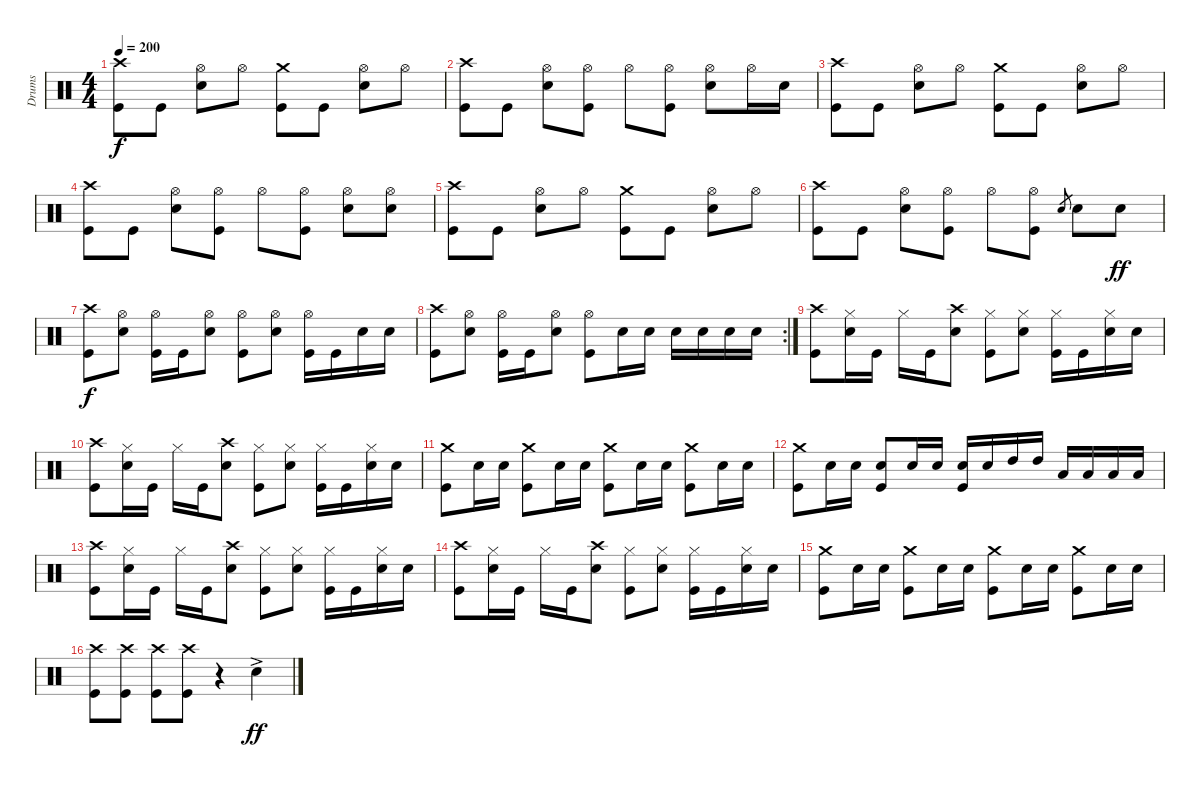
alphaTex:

\track ("Drums" "Drums") {instrument percussion}
\staff {score}
\articulation defaults
\ts (4 4)
\tempo 200
\clef neutral
\ks c
("Crash high (hit)" "Kick (hit)").8{dy f} "Kick (hit)".8 ("Hi-Hat (open)" "Snare (hit) 2").8 "Hi-Hat (open)".8 ("Crash medium (hit)" "Kick (hit)").8 "Kick (hit)".8 ("Hi-Hat (open)" "Snare (hit) 2").8 "Hi-Hat (open)".8 |
("Crash high (hit)" "Kick (hit)").8 "Kick (hit)".8 ("Hi-Hat (open)" "Snare (hit) 2").8 ("Hi-Hat (open)" "Kick (hit)").8 "Hi-Hat (open)".8 ("Hi-Hat (open)" "Kick (hit)").8 ("Hi-Hat (open)" "Snare (hit) 2").8 "Hi-Hat (open)".16 "Snare (hit) 2".16 |
("Crash high (hit)" "Kick (hit)").8 "Kick (hit)".8 ("Hi-Hat (open)" "Snare (hit) 2").8 "Hi-Hat (open)".8 ("Crash medium (hit)" "Kick (hit)").8 "Kick (hit)".8 ("Hi-Hat (open)" "Snare (hit) 2").8 "Hi-Hat (open)".8 |
("Crash high (hit)" "Kick (hit)").8 "Kick (hit)".8 ("Hi-Hat (open)" "Snare (hit) 2").8 ("Hi-Hat (open)" "Kick (hit)").8 "Hi-Hat (open)".8 ("Hi-Hat (open)" "Kick (hit)").8 ("Hi-Hat (open)" "Snare (hit) 2").8 ("Hi-Hat (open)" "Snare (hit) 2").8 |
("Crash high (hit)" "Kick (hit)").8 "Kick (hit)".8 ("Hi-Hat (open)" "Snare (hit) 2").8 "Hi-Hat (open)".8 ("Crash medium (hit)" "Kick (hit)").8 "Kick (hit)".8 ("Hi-Hat (open)" "Snare (hit) 2").8 "Hi-Hat (open)".8 |
("Crash high (hit)" "Kick (hit)").8 "Kick (hit)".8 ("Hi-Hat (open)" "Snare (hit) 2").8 ("Hi-Hat (open)" "Kick (hit)").8 "Hi-Hat (open)".8 ("Hi-Hat (open)" "Kick (hit)").8 "Snare (hit) 2".8{gr} "Snare (hit) 2".8 "Snare (hit) 2".8{dy ff} |
("Crash high (hit)" "Kick (hit)").8{dy f} ("Hi-Hat (open)" "Snare (hit) 2").8 ("Hi-Hat (open)" "Kick (hit)").16 "Kick (hit)".16 ("Hi-Hat (open)" "Snare (hit) 2").8 ("Hi-Hat (open)" "Kick (hit)").8 ("Hi-Hat (open)" "Snare (hit) 2").8 ("Hi-Hat (open)" "Kick (hit)").16 "Kick (hit)".16 "Snare (hit) 2".16 "Snare (hit) 2".16 |
\rc 2
("Crash high (hit)" "Kick (hit)").8 ("Hi-Hat (open)" "Snare (hit) 2").8 ("Hi-Hat (open)" "Kick (hit)").16 "Kick (hit)".16 ("Hi-Hat (open)" "Snare (hit) 2").8 ("Hi-Hat (open)" "Kick (hit)").8 "Snare (hit) 2".16 "Snare (hit) 2".16 "Snare (hit) 2".16 "Snare (hit) 2".16 "Snare (hit) 2".16 "Snare (hit) 2".16 |
("Crash high (hit)" "Kick (hit)").8 ("Hi-Hat (closed)" "Snare (hit) 2").16 "Kick (hit)".16 "Hi-Hat (closed)".16 "Kick (hit)".16 ("Crash high (hit)" "Snare (hit) 2").8 ("Hi-Hat (closed)" "Kick (hit)").8 ("Hi-Hat (closed)" "Snare (hit) 2").8 ("Hi-Hat (closed)" "Kick (hit)").16 "Kick (hit)".16 ("Hi-Hat (closed)" "Snare (hit) 2").16 "Snare (hit) 2".16 |
("Crash high (hit)" "Kick (hit)").8 ("Hi-Hat (closed)" "Snare (hit) 2").16 "Kick (hit)".16 "Hi-Hat (closed)".16 "Kick (hit)".16 ("Crash high (hit)" "Snare (hit) 2").8 ("Hi-Hat (closed)" "Kick (hit)").8 ("Hi-Hat (closed)" "Snare (hit) 2").8 ("Hi-Hat (closed)" "Kick (hit)").16 "Kick (hit)".16 ("Hi-Hat (closed)" "Snare (hit) 2").16 "Snare (hit) 2".16 |
("Crash medium (hit)" "Kick (hit)").8 "Snare (hit) 2".16 "Snare (hit) 2".16 ("Crash medium (hit)" "Kick (hit)").8 "Snare (hit) 2".16 "Snare (hit) 2".16 ("Crash medium (hit)" "Kick (hit)").8 "Snare (hit) 2".16 "Snare (hit) 2".16 ("Crash medium (hit)" "Kick (hit)").8 "Snare (hit) 2".16 "Snare (hit) 2".16 |
("Crash medium (hit)" "Kick (hit)").8 "Snare (hit) 2".16 "Snare (hit) 2".16 ("Snare (hit) 2" "Kick (hit)").8 "Snare (hit) 2".16 "Snare (hit) 2".16 ("Snare (hit) 2" "Kick (hit)").16 "Snare (hit) 2".16 "High Tom (hit)".16 "High Tom (hit)".16 "Low Tom (hit)".16 "Low Tom (hit)".16 "Low Floor Tom (hit)".16 "Low Floor Tom (hit)".16 |
("Crash high (hit)" "Kick (hit)").8 ("Hi-Hat (closed)" "Snare (hit) 2").16 "Kick (hit)".16 "Hi-Hat (closed)".16 "Kick (hit)".16 ("Crash high (hit)" "Snare (hit) 2").8 ("Hi-Hat (closed)" "Kick (hit)").8 ("Hi-Hat (closed)" "Snare (hit) 2").8 ("Hi-Hat (closed)" "Kick (hit)").16 "Kick (hit)".16 ("Hi-Hat (closed)" "Snare (hit) 2").16 "Snare (hit) 2".16 |
("Crash high (hit)" "Kick (hit)").8 ("Hi-Hat (closed)" "Snare (hit) 2").16 "Kick (hit)".16 "Hi-Hat (closed)".16 "Kick (hit)".16 ("Crash high (hit)" "Snare (hit) 2").8 ("Hi-Hat (closed)" "Kick (hit)").8 ("Hi-Hat (closed)" "Snare (hit) 2").8 ("Hi-Hat (closed)" "Kick (hit)").16 "Kick (hit)".16 ("Hi-Hat (closed)" "Snare (hit) 2").16 "Snare (hit) 2".16 |
("Crash medium (hit)" "Kick (hit)").8 "Snare (hit) 2".16 "Snare (hit) 2".16 ("Crash medium (hit)" "Kick (hit)").8 "Snare (hit) 2".16 "Snare (hit) 2".16 ("Crash medium (hit)" "Kick (hit)").8 "Snare (hit) 2".16 "Snare (hit) 2".16 ("Crash medium (hit)" "Kick (hit)").8 "Snare (hit) 2".16 "Snare (hit) 2".16 |
("Crash high (hit)" "Kick (hit)").8 ("Crash high (hit)" "Kick (hit)").8 ("Crash high (hit)" "Kick (hit)").8 ("Crash high (hit)" "Kick (hit)").8 r.4{volume 3} "Snare (hit) 2"{ac}.4{dy ff volume 13}
